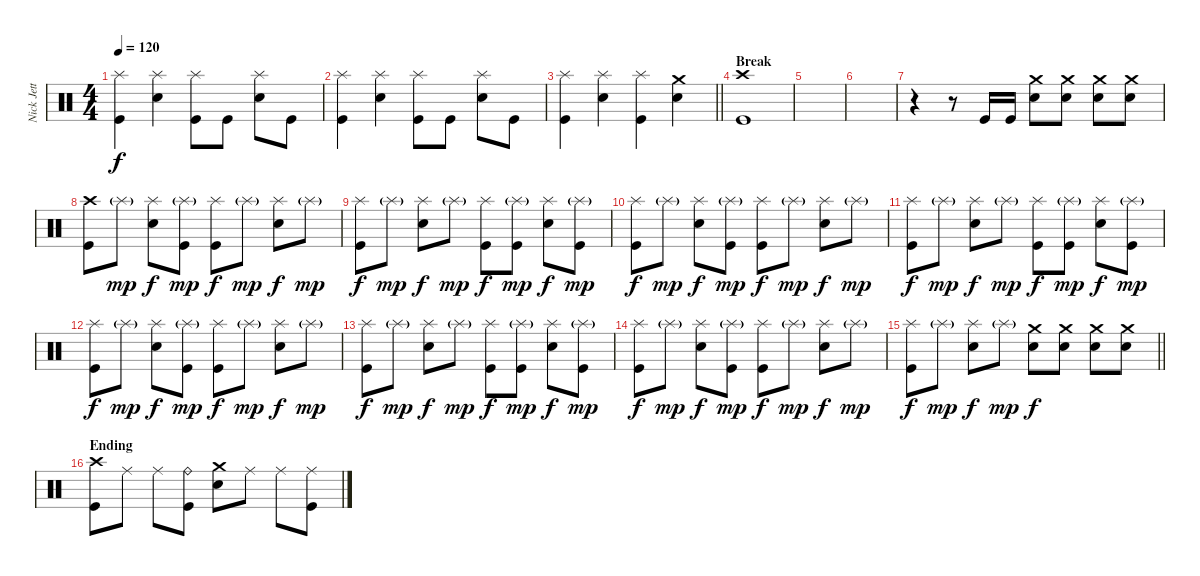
\track ("Nick Jett" "Nick Jett") {instrument percussion}
\staff {score}
\articulation defaults
\ts (4 4)
\tempo 120
\clef neutral
\ks c
("Splash (hit)" "Kick (hit)").4{dy f} ("Splash (hit)" "Electric Snare (hit)").4 ("Splash (hit)" "Kick (hit)").8 "Kick (hit)".8 ("Splash (hit)" "Electric Snare (hit)").8 "Kick (hit)".8 |
("Splash (hit)" "Kick (hit)").4 ("Splash (hit)" "Electric Snare (hit)").4 ("Splash (hit)" "Kick (hit)").8 "Kick (hit)".8 ("Splash (hit)" "Electric Snare (hit)").8 "Kick (hit)".8 |
\barLineRight lightlight
("Splash (hit)" "Kick (hit)").4 ("Splash (hit)" "Electric Snare (hit)").4 ("Splash (hit)" "Kick (hit)").4 ("Crash medium (hit)" "Electric Snare (hit)").4 |
\section ("" "Break")
("Crash high (hit)" "Kick (hit)").1 |
|
|
r.4 r.8 "Kick (hit)".16 "Kick (hit)".16 ("Crash medium (hit)" "Electric Snare (hit)").8 ("Crash medium (hit)" "Electric Snare (hit)").8 ("Crash medium (hit)" "Electric Snare (hit)").8 ("Crash medium (hit)" "Electric Snare (hit)").8 |
("Crash high (hit)" "Kick (hit)").8 "Splash (hit)"{g}.8{dy mp} ("Splash (hit)" "Electric Snare (hit)").8{dy f} ("Splash (hit)"{g} "Kick (hit)").8{dy mp} ("Splash (hit)" "Kick (hit)").8{dy f} "Splash (hit)"{g}.8{dy mp} ("Splash (hit)" "Electric Snare (hit)").8{dy f} "Splash (hit)"{g}.8{dy mp} |
("Splash (hit)" "Kick (hit)").8{dy f} "Splash (hit)"{g}.8{dy mp} ("Splash (hit)" "Electric Snare (hit)").8{dy f} "Splash (hit)"{g}.8{dy mp} ("Splash (hit)" "Kick (hit)").8{dy f} ("Splash (hit)"{g} "Kick (hit)").8{dy mp} ("Splash (hit)" "Electric Snare (hit)").8{dy f} ("Splash (hit)"{g} "Kick (hit)").8{dy mp} |
("Splash (hit)" "Kick (hit)").8{dy f} "Splash (hit)"{g}.8{dy mp} ("Splash (hit)" "Electric Snare (hit)").8{dy f} ("Splash (hit)"{g} "Kick (hit)").8{dy mp} ("Splash (hit)" "Kick (hit)").8{dy f} "Splash (hit)"{g}.8{dy mp} ("Splash (hit)" "Electric Snare (hit)").8{dy f} "Splash (hit)"{g}.8{dy mp} |
("Splash (hit)" "Kick (hit)").8{dy f} "Splash (hit)"{g}.8{dy mp} ("Splash (hit)" "Electric Snare (hit)").8{dy f} "Splash (hit)"{g}.8{dy mp} ("Splash (hit)" "Kick (hit)").8{dy f} ("Splash (hit)"{g} "Kick (hit)").8{dy mp} ("Splash (hit)" "Electric Snare (hit)").8{dy f} ("Splash (hit)"{g} "Kick (hit)").8{dy mp} |
("Splash (hit)" "Kick (hit)").8{dy f} "Splash (hit)"{g}.8{dy mp} ("Splash (hit)" "Electric Snare (hit)").8{dy f} ("Splash (hit)"{g} "Kick (hit)").8{dy mp} ("Splash (hit)" "Kick (hit)").8{dy f} "Splash (hit)"{g}.8{dy mp} ("Splash (hit)" "Electric Snare (hit)").8{dy f} "Splash (hit)"{g}.8{dy mp} |
("Splash (hit)" "Kick (hit)").8{dy f} "Splash (hit)"{g}.8{dy mp} ("Splash (hit)" "Electric Snare (hit)").8{dy f} "Splash (hit)"{g}.8{dy mp} ("Splash (hit)" "Kick (hit)").8{dy f} ("Splash (hit)"{g} "Kick (hit)").8{dy mp} ("Splash (hit)" "Electric Snare (hit)").8{dy f} ("Splash (hit)"{g} "Kick (hit)").8{dy mp} |
("Splash (hit)" "Kick (hit)").8{dy f} "Splash (hit)"{g}.8{dy mp} ("Splash (hit)" "Electric Snare (hit)").8{dy f} ("Splash (hit)"{g} "Kick (hit)").8{dy mp} ("Splash (hit)" "Kick (hit)").8{dy f} "Splash (hit)"{g}.8{dy mp} ("Splash (hit)" "Electric Snare (hit)").8{dy f} "Splash (hit)"{g}.8{dy mp} |
\barLineRight lightlight
("Splash (hit)" "Kick (hit)").8{dy f} "Splash (hit)"{g}.8{dy mp} ("Splash (hit)" "Electric Snare (hit)").8{dy f} "Splash (hit)"{g}.8{dy mp} ("Crash medium (hit)" "Electric Snare (hit)").8{dy f} ("Crash medium (hit)" "Electric Snare (hit)").8 ("Crash medium (hit)" "Electric Snare (hit)").8 ("Crash medium (hit)" "Electric Snare (hit)").8 |
\section ("" "Ending")
("Crash high (hit)" "Kick (hit)").8 "Ride (middle)".8 "Ride (middle)".8 ("Ride (bell)" "Kick (hit)").8 ("Crash medium (hit)" "Electric Snare (hit)").8 "Ride (middle)".8 "Ride (middle)".8 ("Ride (middle)" "Kick (hit)").8
